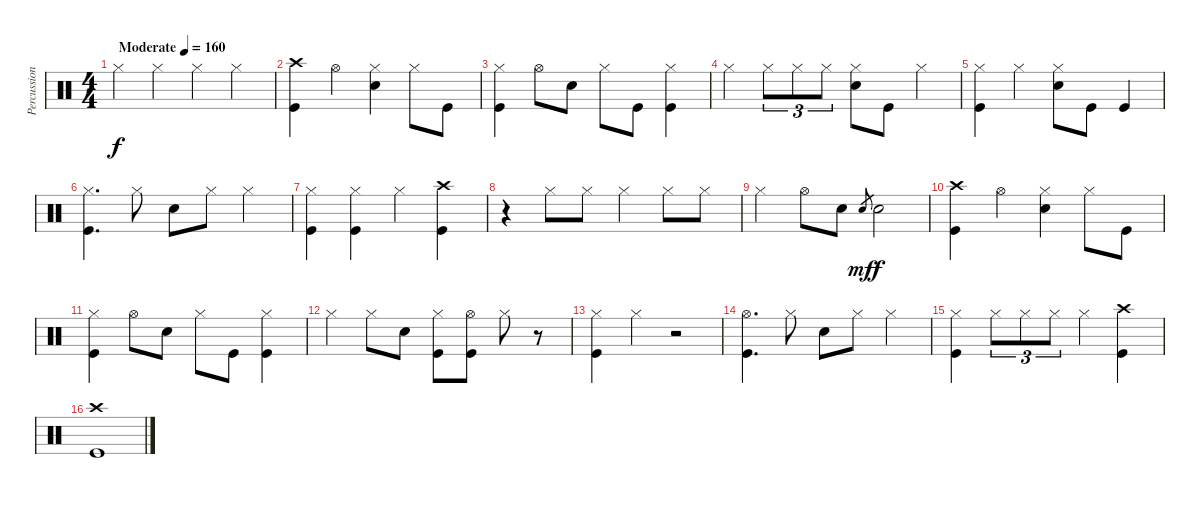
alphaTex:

\track ("Percussion" "Percussion") {instrument percussion}
\staff {score}
\articulation defaults
\ts (4 4)
\tempo (160 "Moderate")
\clef neutral
\ks c "Hi-Hat (closed)".4{dy f} "Hi-Hat (closed)".4 "Hi-Hat (closed)".4 "Hi-Hat (closed)".4
|
("Kick (hit)" "Crash high (hit)").4 "Hi-Hat (open)".4 ("Snare (hit) 2" "Hi-Hat (closed)").4 "Hi-Hat (closed)".8 "Kick (hit)".8 |
("Kick (hit)" "Hi-Hat (closed)").4 "Hi-Hat (open)".8 "Snare (hit) 2".8 "Hi-Hat (closed)".8 "Kick (hit)".8 ("Hi-Hat (closed)" "Kick (hit)").4 |
"Hi-Hat (closed)".4 "Hi-Hat (closed)".8{tu (3 2)} "Hi-Hat (closed)".8{tu (3 2)} "Hi-Hat (closed)".8{tu (3 2)} ("Snare (hit) 2" "Hi-Hat (closed)").8 "Kick (hit)".8 "Hi-Hat (closed)".4 |
("Kick (hit)" "Hi-Hat (closed)").4 "Hi-Hat (closed)".4 ("Snare (hit) 2" "Hi-Hat (closed)").8 "Kick (hit)".8 "Kick (hit)".4 |
("Kick (hit)" "Hi-Hat (closed)").4{d} "Hi-Hat (closed)".8 "Snare (hit) 2".8 "Hi-Hat (closed)".8 "Hi-Hat (closed)".4 |
("Kick (hit)" "Hi-Hat (closed)").4 ("Kick (hit)" "Hi-Hat (closed)").4 "Hi-Hat (closed)".4 ("Kick (hit)" "Crash high (hit)").4 |
r.4 "Hi-Hat (closed)".8 "Hi-Hat (closed)".8 "Hi-Hat (closed)".4 "Hi-Hat (closed)".8 "Hi-Hat (closed)".8 |
"Hi-Hat (closed)".4 "Hi-Hat (open)".8 "Snare (hit) 2".8 "Snare (hit) 2".8{gr dy mf} "Snare (hit) 2".2{dy f} |
("Crash high (hit)" "Kick (hit)").4 "Hi-Hat (open)".4 ("Snare (hit) 2" "Hi-Hat (closed)").4 "Hi-Hat (closed)".8 "Kick (hit)".8 |
("Kick (hit)" "Hi-Hat (closed)").4 "Hi-Hat (open)".8 "Snare (hit) 2".8 "Hi-Hat (closed)".8 "Kick (hit)".8 ("Hi-Hat (closed)" "Kick (hit)").4 |
"Hi-Hat (closed)".4 "Hi-Hat (closed)".8 "Snare (hit) 2".8 ("Kick (hit)" "Hi-Hat (closed)").8 ("Kick (hit)" "Hi-Hat (open)").8 "Hi-Hat (closed)".8 r.8 |
("Kick (hit)" "Hi-Hat (closed)").4 "Hi-Hat (closed)".4 r.2 |
("Kick (hit)" "Hi-Hat (open)").4{d} "Hi-Hat (closed)".8 "Snare (hit) 2".8 "Hi-Hat (closed)".8 "Hi-Hat (closed)".4 |
("Kick (hit)" "Hi-Hat (closed)").4 "Hi-Hat (closed)".8{tu (3 2)} "Hi-Hat (closed)".8{tu (3 2)} "Hi-Hat (closed)".8{tu (3 2)} "Hi-Hat (closed)".4 ("Kick (hit)" "Crash high (hit)").4 |
("Kick (hit)" "Crash high (hit)").1
